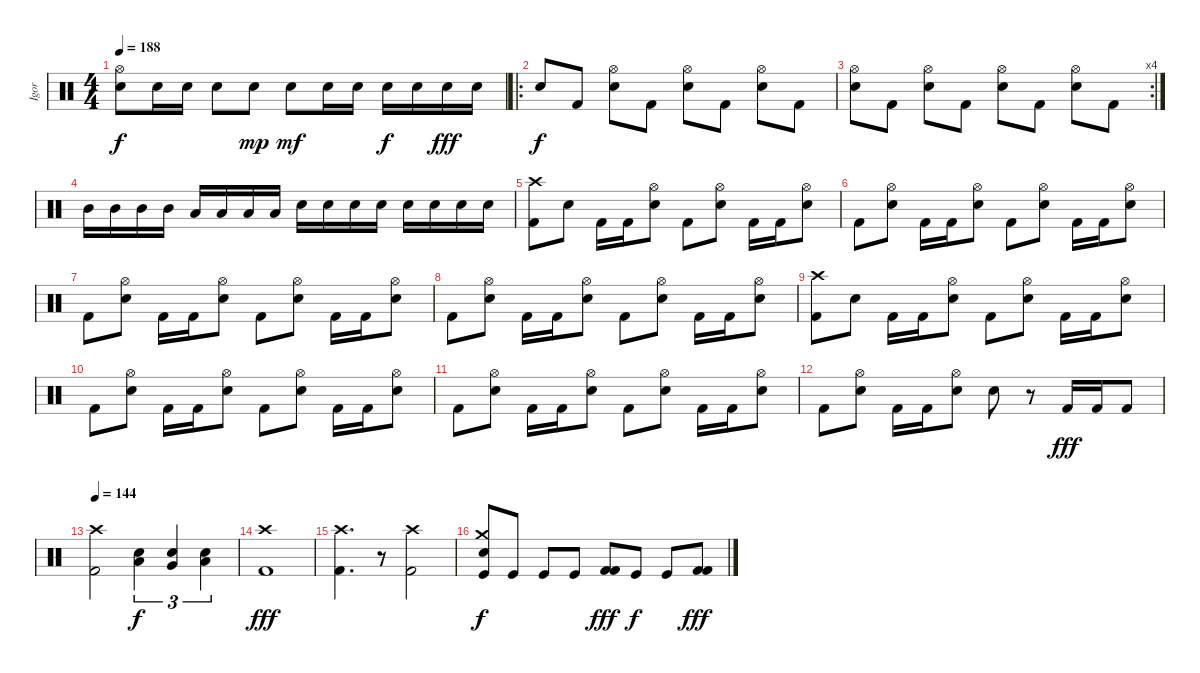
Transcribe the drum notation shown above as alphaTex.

\track ("Igor" "Igor") {instrument percussion}
\staff {score}
\articulation defaults
\ts (4 4)
\tempo 188
\clef neutral
\ks c
("Hi-Hat (open)" "Snare (hit) 2").8{dy f} "Snare (hit) 2".16 "Snare (hit) 2".16 "Snare (hit) 2".8 "Snare (hit) 2".8{dy mp} "Snare (hit) 2".8{dy mf} "Snare (hit) 2".16 "Snare (hit) 2".16 "Snare (hit) 2".16{dy f} "Snare (hit) 2".16 "Snare (hit) 2".16{dy fff} "Snare (hit) 2".16 |
\ro "Snare (hit) 2".8{dy f} "Kick (hit) 2".8
("Hi-Hat (open)" "Snare (hit) 2").8 "Kick (hit) 2".8 ("Hi-Hat (open)" "Snare (hit) 2").8 "Kick (hit) 2".8 ("Hi-Hat (open)" "Snare (hit) 2").8 "Kick (hit) 2".8 |
\rc 4
("Hi-Hat (open)" "Snare (hit) 2").8 "Kick (hit) 2".8 ("Hi-Hat (open)" "Snare (hit) 2").8 "Kick (hit) 2".8 ("Hi-Hat (open)" "Snare (hit) 2").8 "Kick (hit) 2".8 ("Hi-Hat (open)" "Snare (hit) 2").8 "Kick (hit) 2".8 |
"Mid Tom (hit)".16 "Mid Tom (hit)".16 "Mid Tom (hit)".16 "Mid Tom (hit)".16 "Low Tom (hit)".16 "Low Tom (hit)".16 "Low Tom (hit)".16 "Low Tom (hit)".16 "Snare (hit) 2".16 "Snare (hit) 2".16 "Snare (hit) 2".16 "Snare (hit) 2".16 "Snare (hit) 2".16 "Snare (hit) 2".16 "Snare (hit) 2".16 "Snare (hit) 2".16 |
("Crash high (hit)" "Kick (hit) 2").8 "Snare (hit) 2".8 "Kick (hit) 2".16 "Kick (hit) 2".16 ("Hi-Hat (open)" "Snare (hit) 2").8 "Kick (hit) 2".8 ("Hi-Hat (open)" "Snare (hit) 2").8 "Kick (hit) 2".16 "Kick (hit) 2".16 ("Hi-Hat (open)" "Snare (hit) 2").8 |
"Kick (hit) 2".8 ("Hi-Hat (open)" "Snare (hit) 2").8 "Kick (hit) 2".16 "Kick (hit) 2".16 ("Hi-Hat (open)" "Snare (hit) 2").8 "Kick (hit) 2".8 ("Hi-Hat (open)" "Snare (hit) 2").8 "Kick (hit) 2".16 "Kick (hit) 2".16 ("Hi-Hat (open)" "Snare (hit) 2").8 |
"Kick (hit) 2".8 ("Hi-Hat (open)" "Snare (hit) 2").8 "Kick (hit) 2".16 "Kick (hit) 2".16 ("Hi-Hat (open)" "Snare (hit) 2").8 "Kick (hit) 2".8 ("Hi-Hat (open)" "Snare (hit) 2").8 "Kick (hit) 2".16 "Kick (hit) 2".16 ("Hi-Hat (open)" "Snare (hit) 2").8 |
"Kick (hit) 2".8 ("Hi-Hat (open)" "Snare (hit) 2").8 "Kick (hit) 2".16 "Kick (hit) 2".16 ("Hi-Hat (open)" "Snare (hit) 2").8 "Kick (hit) 2".8 ("Hi-Hat (open)" "Snare (hit) 2").8 "Kick (hit) 2".16 "Kick (hit) 2".16 ("Hi-Hat (open)" "Snare (hit) 2").8 |
("Crash high (hit)" "Kick (hit) 2").8 "Snare (hit) 2".8 "Kick (hit) 2".16 "Kick (hit) 2".16 ("Hi-Hat (open)" "Snare (hit) 2").8 "Kick (hit) 2".8 ("Hi-Hat (open)" "Snare (hit) 2").8 "Kick (hit) 2".16 "Kick (hit) 2".16 ("Hi-Hat (open)" "Snare (hit) 2").8 |
"Kick (hit) 2".8 ("Hi-Hat (open)" "Snare (hit) 2").8 "Kick (hit) 2".16 "Kick (hit) 2".16 ("Hi-Hat (open)" "Snare (hit) 2").8 "Kick (hit) 2".8 ("Hi-Hat (open)" "Snare (hit) 2").8 "Kick (hit) 2".16 "Kick (hit) 2".16 ("Hi-Hat (open)" "Snare (hit) 2").8 |
"Kick (hit) 2".8 ("Hi-Hat (open)" "Snare (hit) 2").8 "Kick (hit) 2".16 "Kick (hit) 2".16 ("Hi-Hat (open)" "Snare (hit) 2").8 "Kick (hit) 2".8 ("Hi-Hat (open)" "Snare (hit) 2").8 "Kick (hit) 2".16 "Kick (hit) 2".16 ("Hi-Hat (open)" "Snare (hit) 2").8 |
"Kick (hit) 2".8 ("Hi-Hat (open)" "Snare (hit) 2").8 "Kick (hit) 2".16 "Kick (hit) 2".16 ("Hi-Hat (open)" "Snare (hit) 2").8 "Snare (hit) 2".8 r.8 "Kick (hit) 2".16{dy fff} "Kick (hit) 2".16 "Kick (hit) 2".8 |
\tempo 144
("Crash high (hit)" "Kick (hit) 2").2 ("Low Tom (hit)" "Snare (hit) 2").4{tu (3 2) dy f} ("Very Low Tom (hit)" "Snare (hit) 2").4{tu (3 2)} ("Low Floor Tom (hit)" "Snare (hit) 2").4{tu (3 2)} |
("Crash high (hit)" "Kick (hit) 2").1{dy fff} |
("Crash high (hit)" "Kick (hit) 2").4{d} r.8 ("Crash high (hit)" "Kick (hit) 2").2 |
("Crash medium (hit)" "Kick (hit)" "Snare (hit) 2").8{dy f} "Kick (hit)".8 "Kick (hit)".8 "Kick (hit)".8 ("Kick (hit) 2" "Kick (hit) 2").8{dy fff} "Kick (hit)".8{dy f} "Kick (hit)".8 ("Kick (hit) 2" "Kick (hit) 2").8{dy fff}
